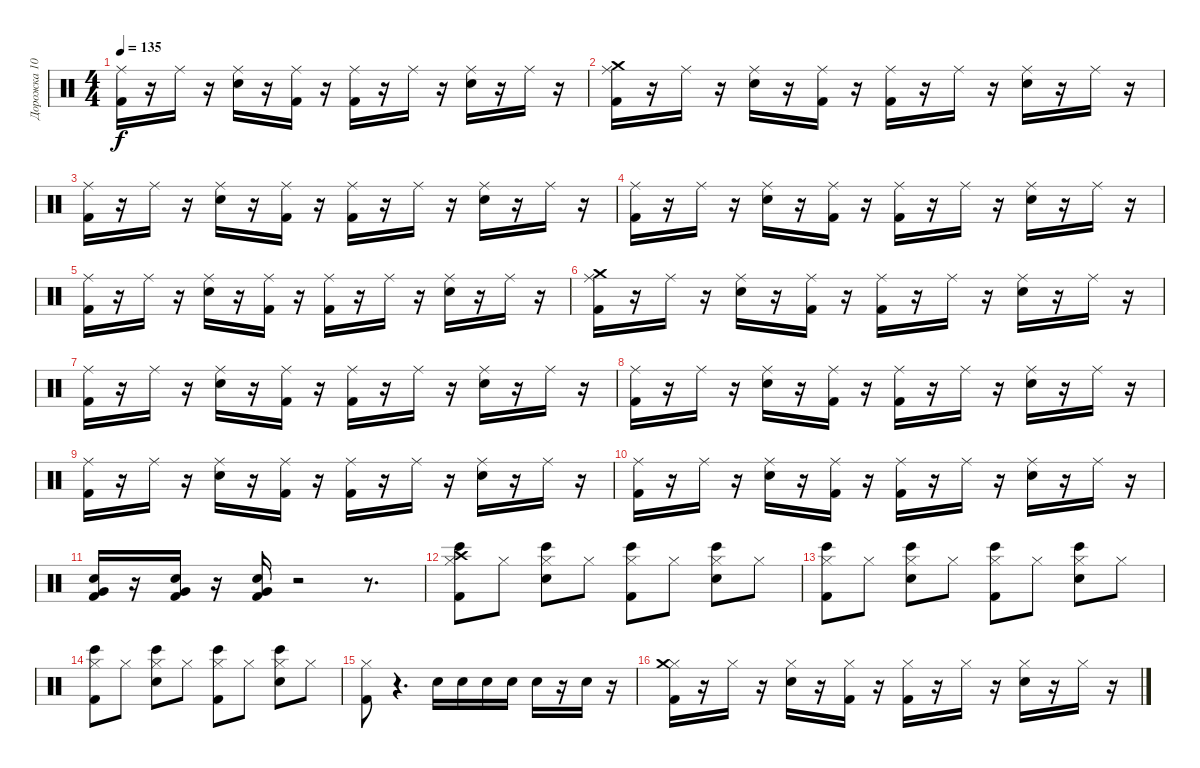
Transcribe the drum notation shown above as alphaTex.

\track ("Дорожка 10" "Дорожка 10") {instrument percussion}
\staff {score}
\articulation defaults
\ts (4 4)
\tempo 135
\clef neutral
\ks c
("Kick (hit) 2" "Ride (middle)").16{dy f} r.16 "Ride (middle)".16 r.16 ("Electric Snare (hit)" "Ride (middle)").16 r.16 ("Kick (hit) 2" "Ride (middle)").16 r.16 ("Kick (hit) 2" "Ride (middle)").16 r.16 "Ride (middle)".16 r.16 ("Electric Snare (hit)" "Ride (middle)").16 r.16 "Ride (middle)".16 r.16 |
("Crash medium (hit)" "Kick (hit) 2" "Ride (middle)").16 r.16 "Ride (middle)".16 r.16 ("Electric Snare (hit)" "Ride (middle)").16 r.16 ("Kick (hit) 2" "Ride (middle)").16 r.16 ("Kick (hit) 2" "Ride (middle)").16 r.16 "Ride (middle)".16 r.16 ("Electric Snare (hit)" "Ride (middle)").16 r.16 "Ride (middle)".16 r.16 |
("Ride (middle)" "Kick (hit) 2").16 r.16 "Ride (middle)".16 r.16 ("Ride (middle)" "Electric Snare (hit)").16 r.16 ("Ride (middle)" "Kick (hit) 2").16 r.16 ("Ride (middle)" "Kick (hit) 2").16 r.16 "Ride (middle)".16 r.16 ("Ride (middle)" "Electric Snare (hit)").16 r.16 "Ride (middle)".16 r.16 |
("Ride (middle)" "Kick (hit) 2").16 r.16 "Ride (middle)".16 r.16 ("Ride (middle)" "Electric Snare (hit)").16 r.16 ("Ride (middle)" "Kick (hit) 2").16 r.16 ("Ride (middle)" "Kick (hit) 2").16 r.16 "Ride (middle)".16 r.16 ("Ride (middle)" "Electric Snare (hit)").16 r.16 "Ride (middle)".16 r.16 |
("Kick (hit) 2" "Ride (middle)").16 r.16 "Ride (middle)".16 r.16 ("Electric Snare (hit)" "Ride (middle)").16 r.16 ("Kick (hit) 2" "Ride (middle)").16 r.16 ("Kick (hit) 2" "Ride (middle)").16 r.16 "Ride (middle)".16 r.16 ("Electric Snare (hit)" "Ride (middle)").16 r.16 "Ride (middle)".16 r.16 |
("Crash medium (hit)" "Kick (hit) 2" "Ride (middle)").16 r.16 "Ride (middle)".16 r.16 ("Electric Snare (hit)" "Ride (middle)").16 r.16 ("Kick (hit) 2" "Ride (middle)").16 r.16 ("Kick (hit) 2" "Ride (middle)").16 r.16 "Ride (middle)".16 r.16 ("Electric Snare (hit)" "Ride (middle)").16 r.16 "Ride (middle)".16 r.16 |
("Ride (middle)" "Kick (hit) 2").16 r.16 "Ride (middle)".16 r.16 ("Ride (middle)" "Electric Snare (hit)").16 r.16 ("Ride (middle)" "Kick (hit) 2").16 r.16 ("Ride (middle)" "Kick (hit) 2").16 r.16 "Ride (middle)".16 r.16 ("Ride (middle)" "Electric Snare (hit)").16 r.16 "Ride (middle)".16 r.16 |
("Kick (hit) 2" "Ride (middle)").16 r.16 "Ride (middle)".16 r.16 ("Electric Snare (hit)" "Ride (middle)").16 r.16 ("Kick (hit) 2" "Ride (middle)").16 r.16 ("Kick (hit) 2" "Ride (middle)").16 r.16 "Ride (middle)".16 r.16 ("Electric Snare (hit)" "Ride (middle)").16 r.16 "Ride (middle)".16 r.16 |
("Ride (middle)" "Kick (hit) 2").16 r.16 "Ride (middle)".16 r.16 ("Ride (middle)" "Electric Snare (hit)").16 r.16 ("Ride (middle)" "Kick (hit) 2").16 r.16 ("Ride (middle)" "Kick (hit) 2").16 r.16 "Ride (middle)".16 r.16 ("Ride (middle)" "Electric Snare (hit)").16 r.16 "Ride (middle)".16 r.16 |
("Kick (hit) 2" "Ride (middle)").16 r.16 "Ride (middle)".16 r.16 ("Electric Snare (hit)" "Ride (middle)").16 r.16 ("Kick (hit) 2" "Ride (middle)").16 r.16 ("Kick (hit) 2" "Ride (middle)").16 r.16 "Ride (middle)".16 r.16 ("Electric Snare (hit)" "Ride (middle)").16 r.16 "Ride (middle)".16 r.16 |
("Snare (hit) 2" "Very Low Tom (hit)" "Kick (hit) 2").16 r.16 ("Very Low Tom (hit)" "Kick (hit) 2" "Electric Snare (hit)").16 r.16 ("Kick (hit) 2" "Electric Snare (hit)" "Very Low Tom (hit)").16 r.2 r.8{d} |
("Bongo High (hit)" "Hi-Hat (closed)" "Crash high (hit)" "Kick (hit) 2").8 "Hi-Hat (closed)".8 ("Bongo High (hit)" "Hi-Hat (closed)" "Electric Snare (hit)").8 "Hi-Hat (closed)".8 ("Bongo High (hit)" "Hi-Hat (closed)" "Kick (hit) 2").8 "Hi-Hat (closed)".8 ("Bongo High (hit)" "Hi-Hat (closed)" "Electric Snare (hit)").8 "Hi-Hat (closed)".8 |
("Bongo High (hit)" "Hi-Hat (closed)" "Kick (hit) 2").8 "Hi-Hat (closed)".8 ("Bongo High (hit)" "Hi-Hat (closed)" "Electric Snare (hit)").8 "Hi-Hat (closed)".8 ("Bongo High (hit)" "Hi-Hat (closed)" "Kick (hit) 2").8 "Hi-Hat (closed)".8 ("Bongo High (hit)" "Hi-Hat (closed)" "Electric Snare (hit)").8 "Hi-Hat (closed)".8 |
("Bongo High (hit)" "Hi-Hat (closed)" "Kick (hit) 2").8 "Hi-Hat (closed)".8 ("Bongo High (hit)" "Hi-Hat (closed)" "Electric Snare (hit)").8 "Hi-Hat (closed)".8 ("Bongo High (hit)" "Hi-Hat (closed)" "Kick (hit) 2").8 "Hi-Hat (closed)".8 ("Bongo High (hit)" "Hi-Hat (closed)" "Electric Snare (hit)").8 "Hi-Hat (closed)".8 |
("Hi-Hat (closed)" "Kick (hit) 2").8 r.4{d} "Electric Snare (hit)".16 "Electric Snare (hit)".16 "Electric Snare (hit)".16 "Electric Snare (hit)".16 "Electric Snare (hit)".16 r.16 "Electric Snare (hit)".16 r.16 |
("Hi-Hat (closed)" "Crash medium (hit)" "Kick (hit) 2").16 r.16 "Hi-Hat (closed)".16 r.16 ("Hi-Hat (closed)" "Electric Snare (hit)").16 r.16 ("Hi-Hat (closed)" "Kick (hit) 2").16 r.16 ("Hi-Hat (closed)" "Kick (hit) 2").16 r.16 "Hi-Hat (closed)".16 r.16 ("Hi-Hat (closed)" "Electric Snare (hit)").16 r.16 "Hi-Hat (closed)".16 r.16
